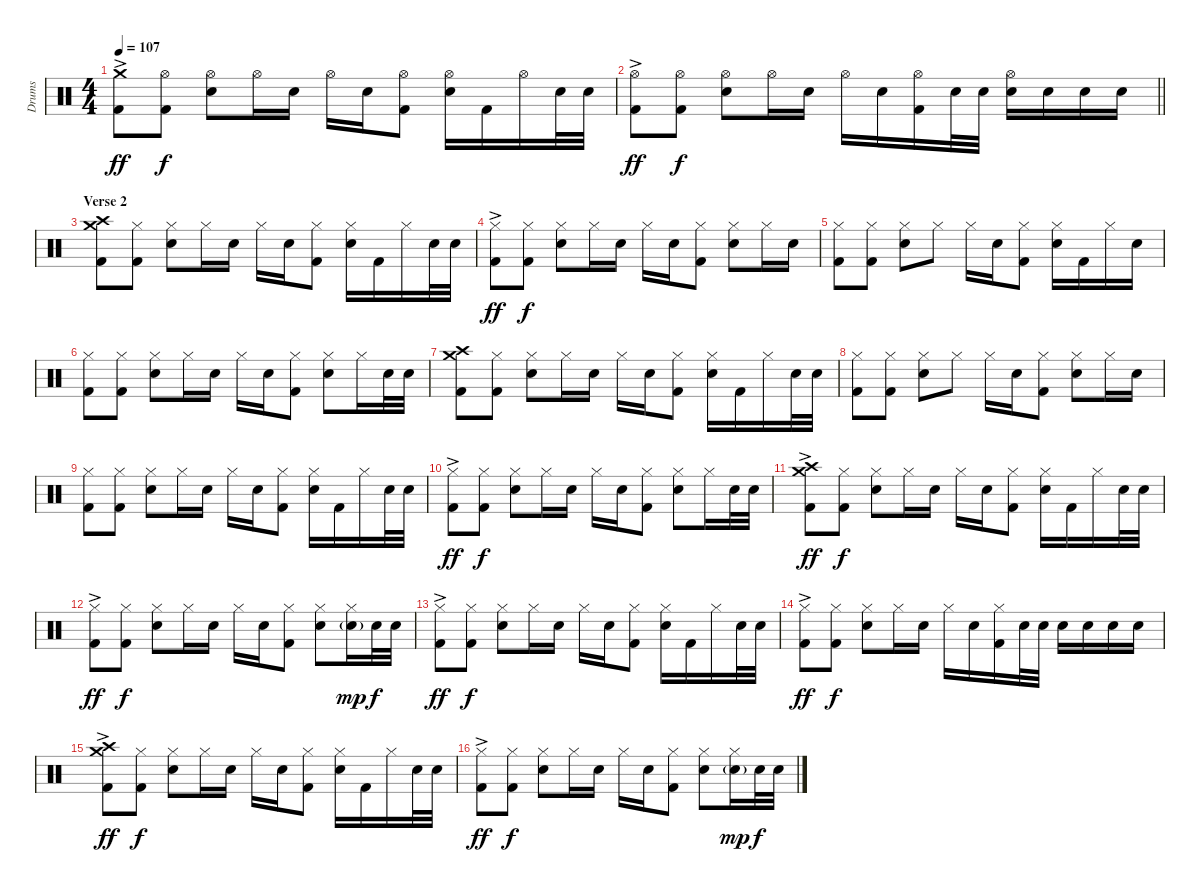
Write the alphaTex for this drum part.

\track ("Drums" "Drums") {instrument percussion}
\staff {score}
\articulation defaults
\ts (4 4)
\tempo 107
\clef neutral
\ks c
("Crash medium (hit)" "Kick (hit) 2"{ac}).8{dy ff} ("Hi-Hat (open)" "Kick (hit) 2").8{dy f} ("Hi-Hat (open)" "Electric Snare (hit)").8 "Hi-Hat (open)".16 "Electric Snare (hit)".16 "Hi-Hat (open)".16 "Electric Snare (hit)".16 ("Hi-Hat (open)" "Kick (hit) 2").8 ("Hi-Hat (open)" "Electric Snare (hit)").16 "Kick (hit) 2".16 "Hi-Hat (open)".16 "Electric Snare (hit)".32 "Electric Snare (hit)".32 |
\barLineRight lightlight
("Hi-Hat (open)" "Kick (hit) 2"{ac}).8{dy ff} ("Hi-Hat (open)" "Kick (hit) 2").8{dy f} ("Hi-Hat (open)" "Electric Snare (hit)").8 "Hi-Hat (open)".16 "Electric Snare (hit)".16 "Hi-Hat (open)".16 "Electric Snare (hit)".16 ("Hi-Hat (open)" "Kick (hit) 2").16 "Electric Snare (hit)".32 "Electric Snare (hit)".32 ("Hi-Hat (open)" "Electric Snare (hit)").16 "Electric Snare (hit)".16 "Electric Snare (hit)".16 "Electric Snare (hit)".16 |
\section ("" "Verse 2")
("Crash high (hit)" "Crash medium (hit)" "Kick (hit) 2").8{volume 13} ("Hi-Hat (closed)" "Kick (hit) 2").8 ("Hi-Hat (closed)" "Electric Snare (hit)").8 "Hi-Hat (closed)".16 "Electric Snare (hit)".16 "Hi-Hat (closed)".16 "Electric Snare (hit)".16 ("Hi-Hat (closed)" "Kick (hit) 2").8 ("Hi-Hat (closed)" "Electric Snare (hit)").16 "Kick (hit) 2".16 "Hi-Hat (closed)".16 "Electric Snare (hit)".32 "Electric Snare (hit)".32 |
("Hi-Hat (closed)" "Kick (hit) 2"{ac}).8{dy ff} ("Hi-Hat (closed)" "Kick (hit) 2").8{dy f} ("Hi-Hat (closed)" "Electric Snare (hit)").8 "Hi-Hat (closed)".16 "Electric Snare (hit)".16 "Hi-Hat (closed)".16 "Electric Snare (hit)".16 ("Hi-Hat (closed)" "Kick (hit) 2").8 ("Hi-Hat (closed)" "Electric Snare (hit)").8 "Hi-Hat (closed)".16 "Electric Snare (hit)".16 |
("Hi-Hat (closed)" "Kick (hit) 2").8 ("Hi-Hat (closed)" "Kick (hit) 2").8 ("Hi-Hat (closed)" "Electric Snare (hit)").8 "Hi-Hat (closed)".8 "Hi-Hat (closed)".16 "Electric Snare (hit)".16 ("Hi-Hat (closed)" "Kick (hit) 2").8 ("Hi-Hat (closed)" "Electric Snare (hit)").16 "Kick (hit) 2".16 "Hi-Hat (closed)".16 "Electric Snare (hit)".16 |
("Hi-Hat (closed)" "Kick (hit) 2").8 ("Hi-Hat (closed)" "Kick (hit) 2").8 ("Hi-Hat (closed)" "Electric Snare (hit)").8 "Hi-Hat (closed)".16 "Electric Snare (hit)".16 "Hi-Hat (closed)".16 "Electric Snare (hit)".16 ("Hi-Hat (closed)" "Kick (hit) 2").8 ("Hi-Hat (closed)" "Electric Snare (hit)").8 "Hi-Hat (closed)".16 "Electric Snare (hit)".32 "Electric Snare (hit)".32 |
("Crash high (hit)" "Crash medium (hit)" "Kick (hit) 2").8 ("Hi-Hat (closed)" "Kick (hit) 2").8 ("Hi-Hat (closed)" "Electric Snare (hit)").8 "Hi-Hat (closed)".16 "Electric Snare (hit)".16 "Hi-Hat (closed)".16 "Electric Snare (hit)".16 ("Hi-Hat (closed)" "Kick (hit) 2").8 ("Hi-Hat (closed)" "Electric Snare (hit)").16 "Kick (hit) 2".16 "Hi-Hat (closed)".16 "Electric Snare (hit)".32 "Electric Snare (hit)".32 |
("Hi-Hat (closed)" "Kick (hit) 2").8 ("Hi-Hat (closed)" "Kick (hit) 2").8 ("Hi-Hat (closed)" "Electric Snare (hit)").8 "Hi-Hat (closed)".8 "Hi-Hat (closed)".16 "Electric Snare (hit)".16 ("Hi-Hat (closed)" "Kick (hit) 2").8 ("Hi-Hat (closed)" "Electric Snare (hit)").8 "Hi-Hat (closed)".16 "Electric Snare (hit)".16 |
("Hi-Hat (closed)" "Kick (hit) 2").8 ("Hi-Hat (closed)" "Kick (hit) 2").8 ("Hi-Hat (closed)" "Electric Snare (hit)").8 "Hi-Hat (closed)".16 "Electric Snare (hit)".16 "Hi-Hat (closed)".16 "Electric Snare (hit)".16 ("Hi-Hat (closed)" "Kick (hit) 2").8 ("Hi-Hat (closed)" "Electric Snare (hit)").16 "Kick (hit) 2".16 "Hi-Hat (closed)".16 "Electric Snare (hit)".32 "Electric Snare (hit)".32 |
("Hi-Hat (closed)" "Kick (hit) 2"{ac}).8{dy ff} ("Hi-Hat (closed)" "Kick (hit) 2").8{dy f} ("Hi-Hat (closed)" "Electric Snare (hit)").8 "Hi-Hat (closed)".16 "Electric Snare (hit)".16 "Hi-Hat (closed)".16 "Electric Snare (hit)".16 ("Hi-Hat (closed)" "Kick (hit) 2").8 ("Hi-Hat (closed)" "Electric Snare (hit)").8 "Hi-Hat (closed)".16 "Electric Snare (hit)".32 "Electric Snare (hit)".32 |
("Crash high (hit)" "Crash medium (hit)" "Kick (hit) 2"{ac}).8{dy ff} ("Hi-Hat (closed)" "Kick (hit) 2").8{dy f} ("Hi-Hat (closed)" "Electric Snare (hit)").8 "Hi-Hat (closed)".16 "Electric Snare (hit)".16 "Hi-Hat (closed)".16 "Electric Snare (hit)".16 ("Hi-Hat (closed)" "Kick (hit) 2").8 ("Hi-Hat (closed)" "Electric Snare (hit)").16 "Kick (hit) 2".16 "Hi-Hat (closed)".16 "Electric Snare (hit)".32 "Electric Snare (hit)".32 |
("Hi-Hat (closed)" "Kick (hit) 2"{ac}).8{dy ff} ("Hi-Hat (closed)" "Kick (hit) 2").8{dy f} ("Hi-Hat (closed)" "Electric Snare (hit)").8 "Hi-Hat (closed)".16 "Electric Snare (hit)".16 "Hi-Hat (closed)".16 "Electric Snare (hit)".16 ("Hi-Hat (closed)" "Kick (hit) 2").8 ("Hi-Hat (closed)" "Electric Snare (hit)").8 ("Hi-Hat (closed)" "Electric Snare (hit)"{g}).16{dy mp} "Electric Snare (hit)".32{dy f} "Electric Snare (hit)".32 |
("Hi-Hat (closed)" "Kick (hit) 2"{ac}).8{dy ff} ("Hi-Hat (closed)" "Kick (hit) 2").8{dy f} ("Hi-Hat (closed)" "Electric Snare (hit)").8 "Hi-Hat (closed)".16 "Electric Snare (hit)".16 "Hi-Hat (closed)".16 "Electric Snare (hit)".16 ("Hi-Hat (closed)" "Kick (hit) 2").8 ("Hi-Hat (closed)" "Electric Snare (hit)").16 "Kick (hit) 2".16 "Hi-Hat (closed)".16 "Electric Snare (hit)".32 "Electric Snare (hit)".32 |
("Hi-Hat (closed)" "Kick (hit) 2"{ac}).8{dy ff} ("Hi-Hat (closed)" "Kick (hit) 2").8{dy f} ("Hi-Hat (closed)" "Electric Snare (hit)").8 "Hi-Hat (closed)".16 "Electric Snare (hit)".16 "Hi-Hat (closed)".16 "Electric Snare (hit)".16 ("Hi-Hat (closed)" "Kick (hit) 2").16 "Electric Snare (hit)".32 "Electric Snare (hit)".32 "Electric Snare (hit)".16 "Electric Snare (hit)".16 "Electric Snare (hit)".16 "Electric Snare (hit)".16 |
("Crash high (hit)" "Crash medium (hit)" "Kick (hit) 2"{ac}).8{dy ff} ("Hi-Hat (closed)" "Kick (hit) 2").8{dy f} ("Hi-Hat (closed)" "Electric Snare (hit)").8 "Hi-Hat (closed)".16 "Electric Snare (hit)".16 "Hi-Hat (closed)".16 "Electric Snare (hit)".16 ("Hi-Hat (closed)" "Kick (hit) 2").8 ("Hi-Hat (closed)" "Electric Snare (hit)").16 "Kick (hit) 2".16 "Hi-Hat (closed)".16 "Electric Snare (hit)".32 "Electric Snare (hit)".32 |
("Hi-Hat (closed)" "Kick (hit) 2"{ac}).8{dy ff} ("Hi-Hat (closed)" "Kick (hit) 2").8{dy f} ("Hi-Hat (closed)" "Electric Snare (hit)").8 "Hi-Hat (closed)".16 "Electric Snare (hit)".16 "Hi-Hat (closed)".16 "Electric Snare (hit)".16 ("Hi-Hat (closed)" "Kick (hit) 2").8 ("Hi-Hat (closed)" "Electric Snare (hit)").8 ("Hi-Hat (closed)" "Electric Snare (hit)"{g}).16{dy mp} "Electric Snare (hit)".32{dy f} "Electric Snare (hit)".32
